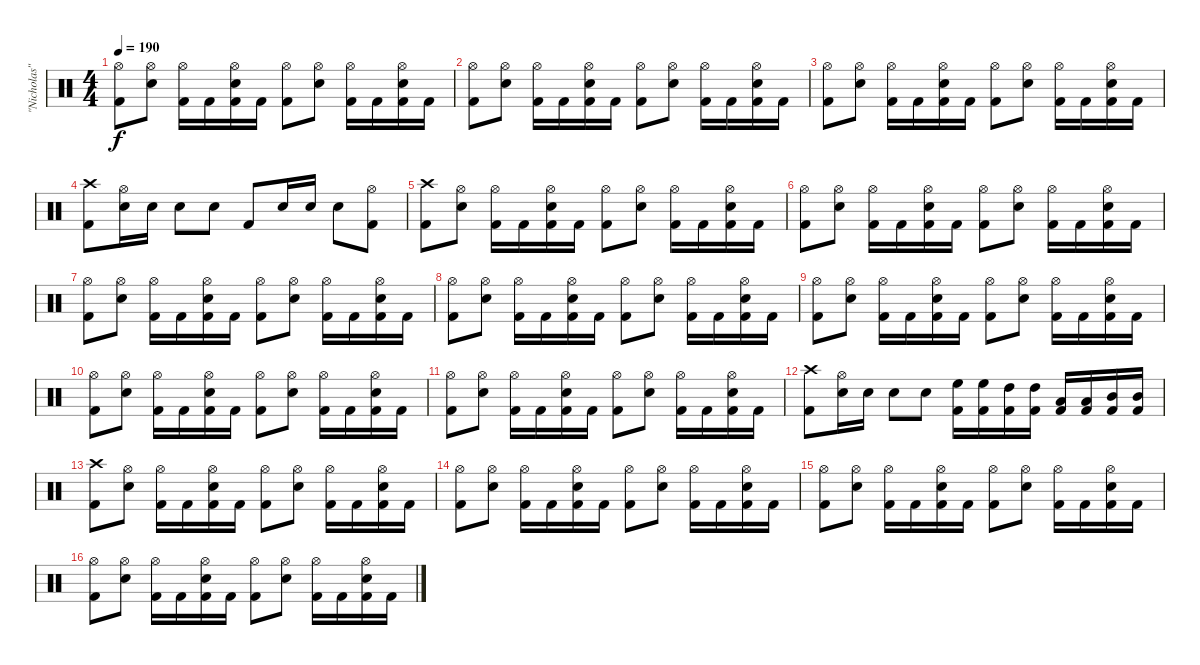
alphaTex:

\track ("\"Nicholas\"" "\"Nicholas\"") {instrument percussion}
\staff {score}
\articulation defaults
\ts (4 4)
\tempo 190
\clef neutral
\ks c
("Kick (hit) 2" "Hi-Hat (open)").8{dy f} ("Snare (hit) 2" "Hi-Hat (open)").8 ("Kick (hit) 2" "Hi-Hat (open)").16 "Kick (hit) 2".16 ("Kick (hit) 2" "Snare (hit) 2" "Hi-Hat (open)").16 "Kick (hit) 2".16 ("Kick (hit) 2" "Hi-Hat (open)").8 ("Snare (hit) 2" "Hi-Hat (open)").8 ("Kick (hit) 2" "Hi-Hat (open)").16 "Kick (hit) 2".16 ("Kick (hit) 2" "Snare (hit) 2" "Hi-Hat (open)").16 "Kick (hit) 2".16 |
("Kick (hit) 2" "Hi-Hat (open)").8 ("Snare (hit) 2" "Hi-Hat (open)").8 ("Kick (hit) 2" "Hi-Hat (open)").16 "Kick (hit) 2".16 ("Kick (hit) 2" "Snare (hit) 2" "Hi-Hat (open)").16 "Kick (hit) 2".16 ("Kick (hit) 2" "Hi-Hat (open)").8 ("Snare (hit) 2" "Hi-Hat (open)").8 ("Kick (hit) 2" "Hi-Hat (open)").16 "Kick (hit) 2".16 ("Kick (hit) 2" "Snare (hit) 2" "Hi-Hat (open)").16 "Kick (hit) 2".16 |
("Kick (hit) 2" "Hi-Hat (open)").8 ("Snare (hit) 2" "Hi-Hat (open)").8 ("Kick (hit) 2" "Hi-Hat (open)").16 "Kick (hit) 2".16 ("Kick (hit) 2" "Snare (hit) 2" "Hi-Hat (open)").16 "Kick (hit) 2".16 ("Kick (hit) 2" "Hi-Hat (open)").8 ("Snare (hit) 2" "Hi-Hat (open)").8 ("Kick (hit) 2" "Hi-Hat (open)").16 "Kick (hit) 2".16 ("Kick (hit) 2" "Snare (hit) 2" "Hi-Hat (open)").16 "Kick (hit) 2".16 |
("Kick (hit) 2" "Crash high (hit)").8 ("Snare (hit) 2" "Hi-Hat (open)").16 "Snare (hit) 2".16 "Snare (hit) 2".8 "Snare (hit) 2".8 "Kick (hit) 2".8 "Snare (hit) 2".16 "Snare (hit) 2".16 "Snare (hit) 2".8 ("Kick (hit) 2" "Hi-Hat (open)").8 |
("Kick (hit) 2" "Crash high (hit)").8 ("Snare (hit) 2" "Hi-Hat (open)").8 ("Kick (hit) 2" "Hi-Hat (open)").16 "Kick (hit) 2".16 ("Kick (hit) 2" "Snare (hit) 2" "Hi-Hat (open)").16 "Kick (hit) 2".16 ("Kick (hit) 2" "Hi-Hat (open)").8 ("Snare (hit) 2" "Hi-Hat (open)").8 ("Kick (hit) 2" "Hi-Hat (open)").16 "Kick (hit) 2".16 ("Kick (hit) 2" "Snare (hit) 2" "Hi-Hat (open)").16 "Kick (hit) 2".16 |
("Kick (hit) 2" "Hi-Hat (open)").8 ("Snare (hit) 2" "Hi-Hat (open)").8 ("Kick (hit) 2" "Hi-Hat (open)").16 "Kick (hit) 2".16 ("Kick (hit) 2" "Snare (hit) 2" "Hi-Hat (open)").16 "Kick (hit) 2".16 ("Kick (hit) 2" "Hi-Hat (open)").8 ("Snare (hit) 2" "Hi-Hat (open)").8 ("Kick (hit) 2" "Hi-Hat (open)").16 "Kick (hit) 2".16 ("Kick (hit) 2" "Snare (hit) 2" "Hi-Hat (open)").16 "Kick (hit) 2".16 |
("Kick (hit) 2" "Hi-Hat (open)").8 ("Snare (hit) 2" "Hi-Hat (open)").8 ("Kick (hit) 2" "Hi-Hat (open)").16 "Kick (hit) 2".16 ("Kick (hit) 2" "Snare (hit) 2" "Hi-Hat (open)").16 "Kick (hit) 2".16 ("Kick (hit) 2" "Hi-Hat (open)").8 ("Snare (hit) 2" "Hi-Hat (open)").8 ("Kick (hit) 2" "Hi-Hat (open)").16 "Kick (hit) 2".16 ("Kick (hit) 2" "Snare (hit) 2" "Hi-Hat (open)").16 "Kick (hit) 2".16 |
("Kick (hit) 2" "Hi-Hat (open)").8 ("Snare (hit) 2" "Hi-Hat (open)").8 ("Kick (hit) 2" "Hi-Hat (open)").16 "Kick (hit) 2".16 ("Kick (hit) 2" "Snare (hit) 2" "Hi-Hat (open)").16 "Kick (hit) 2".16 ("Kick (hit) 2" "Hi-Hat (open)").8 ("Snare (hit) 2" "Hi-Hat (open)").8 ("Kick (hit) 2" "Hi-Hat (open)").16 "Kick (hit) 2".16 ("Kick (hit) 2" "Snare (hit) 2" "Hi-Hat (open)").16 "Kick (hit) 2".16 |
("Kick (hit) 2" "Hi-Hat (open)").8 ("Snare (hit) 2" "Hi-Hat (open)").8 ("Kick (hit) 2" "Hi-Hat (open)").16 "Kick (hit) 2".16 ("Kick (hit) 2" "Snare (hit) 2" "Hi-Hat (open)").16 "Kick (hit) 2".16 ("Kick (hit) 2" "Hi-Hat (open)").8 ("Snare (hit) 2" "Hi-Hat (open)").8 ("Kick (hit) 2" "Hi-Hat (open)").16 "Kick (hit) 2".16 ("Kick (hit) 2" "Snare (hit) 2" "Hi-Hat (open)").16 "Kick (hit) 2".16 |
("Kick (hit) 2" "Hi-Hat (open)").8 ("Snare (hit) 2" "Hi-Hat (open)").8 ("Kick (hit) 2" "Hi-Hat (open)").16 "Kick (hit) 2".16 ("Kick (hit) 2" "Snare (hit) 2" "Hi-Hat (open)").16 "Kick (hit) 2".16 ("Kick (hit) 2" "Hi-Hat (open)").8 ("Snare (hit) 2" "Hi-Hat (open)").8 ("Kick (hit) 2" "Hi-Hat (open)").16 "Kick (hit) 2".16 ("Kick (hit) 2" "Snare (hit) 2" "Hi-Hat (open)").16 "Kick (hit) 2".16 |
("Kick (hit) 2" "Hi-Hat (open)").8 ("Snare (hit) 2" "Hi-Hat (open)").8 ("Kick (hit) 2" "Hi-Hat (open)").16 "Kick (hit) 2".16 ("Kick (hit) 2" "Snare (hit) 2" "Hi-Hat (open)").16 "Kick (hit) 2".16 ("Kick (hit) 2" "Hi-Hat (open)").8 ("Snare (hit) 2" "Hi-Hat (open)").8 ("Kick (hit) 2" "Hi-Hat (open)").16 "Kick (hit) 2".16 ("Kick (hit) 2" "Snare (hit) 2" "Hi-Hat (open)").16 "Kick (hit) 2".16 |
("Kick (hit) 2" "Crash high (hit)").8 ("Snare (hit) 2" "Hi-Hat (open)").16 "Snare (hit) 2".16 "Snare (hit) 2".8 "Snare (hit) 2".8 ("Kick (hit) 2" "High Floor Tom (hit)").16 ("Kick (hit) 2" "High Floor Tom (hit)").16 ("Kick (hit) 2" "High Tom (hit)").16 ("Kick (hit) 2" "High Tom (hit)").16 ("Kick (hit) 2" "Low Tom (hit)").16 ("Kick (hit) 2" "Low Tom (hit)").16 ("Kick (hit) 2" "Mid Tom (hit)").16 ("Kick (hit) 2" "Mid Tom (hit)").16 |
("Kick (hit) 2" "Crash high (hit)").8 ("Snare (hit) 2" "Hi-Hat (open)").8 ("Kick (hit) 2" "Hi-Hat (open)").16 "Kick (hit) 2".16 ("Kick (hit) 2" "Snare (hit) 2" "Hi-Hat (open)").16 "Kick (hit) 2".16 ("Kick (hit) 2" "Hi-Hat (open)").8 ("Snare (hit) 2" "Hi-Hat (open)").8 ("Kick (hit) 2" "Hi-Hat (open)").16 "Kick (hit) 2".16 ("Kick (hit) 2" "Snare (hit) 2" "Hi-Hat (open)").16 "Kick (hit) 2".16 |
("Kick (hit) 2" "Hi-Hat (open)").8 ("Snare (hit) 2" "Hi-Hat (open)").8 ("Kick (hit) 2" "Hi-Hat (open)").16 "Kick (hit) 2".16 ("Kick (hit) 2" "Snare (hit) 2" "Hi-Hat (open)").16 "Kick (hit) 2".16 ("Kick (hit) 2" "Hi-Hat (open)").8 ("Snare (hit) 2" "Hi-Hat (open)").8 ("Kick (hit) 2" "Hi-Hat (open)").16 "Kick (hit) 2".16 ("Kick (hit) 2" "Snare (hit) 2" "Hi-Hat (open)").16 "Kick (hit) 2".16 |
("Kick (hit) 2" "Hi-Hat (open)").8 ("Snare (hit) 2" "Hi-Hat (open)").8 ("Kick (hit) 2" "Hi-Hat (open)").16 "Kick (hit) 2".16 ("Kick (hit) 2" "Snare (hit) 2" "Hi-Hat (open)").16 "Kick (hit) 2".16 ("Kick (hit) 2" "Hi-Hat (open)").8 ("Snare (hit) 2" "Hi-Hat (open)").8 ("Kick (hit) 2" "Hi-Hat (open)").16 "Kick (hit) 2".16 ("Kick (hit) 2" "Snare (hit) 2" "Hi-Hat (open)").16 "Kick (hit) 2".16 |
("Kick (hit) 2" "Hi-Hat (open)").8 ("Snare (hit) 2" "Hi-Hat (open)").8 ("Kick (hit) 2" "Hi-Hat (open)").16 "Kick (hit) 2".16 ("Kick (hit) 2" "Snare (hit) 2" "Hi-Hat (open)").16 "Kick (hit) 2".16 ("Kick (hit) 2" "Hi-Hat (open)").8 ("Snare (hit) 2" "Hi-Hat (open)").8 ("Kick (hit) 2" "Hi-Hat (open)").16 "Kick (hit) 2".16 ("Kick (hit) 2" "Snare (hit) 2" "Hi-Hat (open)").16 "Kick (hit) 2".16
